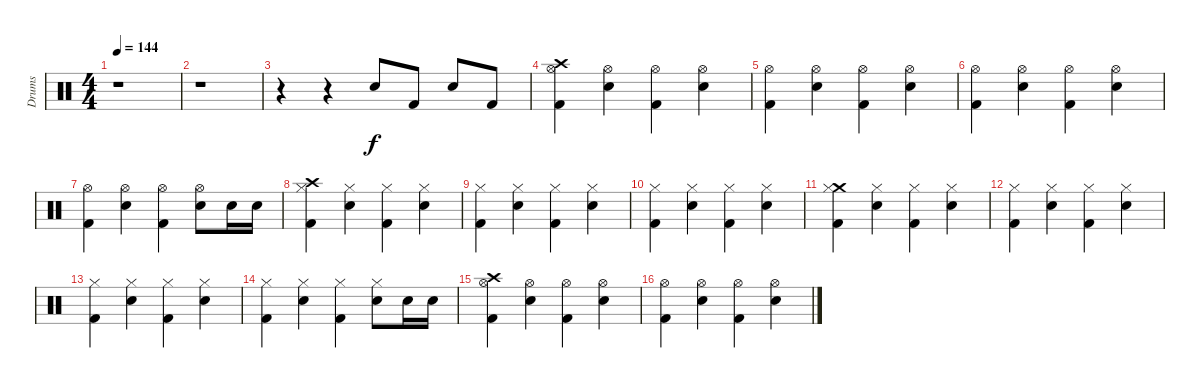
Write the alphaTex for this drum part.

\track ("Drums" "Drums") {instrument percussion}
\staff {score}
\articulation defaults
\ts (4 4)
\tempo 144
\clef neutral
\ks c
r.1{dy f} |
r.1 |
r.4 r.4 "Electric Snare (hit)".8 "Kick (hit) 2".8 "Electric Snare (hit)".8 "Kick (hit) 2".8 |
("Crash high (hit)" "Hi-Hat (open)" "Kick (hit) 2").4 ("Hi-Hat (open)" "Electric Snare (hit)").4 ("Hi-Hat (open)" "Kick (hit) 2").4 ("Hi-Hat (open)" "Electric Snare (hit)").4 |
("Hi-Hat (open)" "Kick (hit) 2").4 ("Hi-Hat (open)" "Electric Snare (hit)").4 ("Hi-Hat (open)" "Kick (hit) 2").4 ("Hi-Hat (open)" "Electric Snare (hit)").4 |
("Hi-Hat (open)" "Kick (hit) 2").4 ("Hi-Hat (open)" "Electric Snare (hit)").4 ("Hi-Hat (open)" "Kick (hit) 2").4 ("Hi-Hat (open)" "Electric Snare (hit)").4 |
("Hi-Hat (open)" "Kick (hit) 2").4 ("Hi-Hat (open)" "Electric Snare (hit)").4 ("Hi-Hat (open)" "Kick (hit) 2").4 ("Hi-Hat (open)" "Electric Snare (hit)").8 "Electric Snare (hit)".16 "Electric Snare (hit)".16 |
("Crash high (hit)" "Hi-Hat (closed)" "Kick (hit) 2").4 ("Hi-Hat (closed)" "Electric Snare (hit)").4 ("Hi-Hat (closed)" "Kick (hit) 2").4 ("Hi-Hat (closed)" "Electric Snare (hit)").4 |
("Hi-Hat (closed)" "Kick (hit) 2").4 ("Hi-Hat (closed)" "Electric Snare (hit)").4 ("Hi-Hat (closed)" "Kick (hit) 2").4 ("Hi-Hat (closed)" "Electric Snare (hit)").4 |
("Hi-Hat (closed)" "Kick (hit) 2").4 ("Hi-Hat (closed)" "Electric Snare (hit)").4 ("Hi-Hat (closed)" "Kick (hit) 2").4 ("Hi-Hat (closed)" "Electric Snare (hit)").4 |
("Crash medium (hit)" "Hi-Hat (closed)" "Kick (hit) 2").4 ("Hi-Hat (closed)" "Electric Snare (hit)").4 ("Hi-Hat (closed)" "Kick (hit) 2").4 ("Hi-Hat (closed)" "Electric Snare (hit)").4 |
("Hi-Hat (closed)" "Kick (hit) 2").4 ("Hi-Hat (closed)" "Electric Snare (hit)").4 ("Hi-Hat (closed)" "Kick (hit) 2").4 ("Hi-Hat (closed)" "Electric Snare (hit)").4 |
("Hi-Hat (closed)" "Kick (hit) 2").4 ("Hi-Hat (closed)" "Electric Snare (hit)").4 ("Hi-Hat (closed)" "Kick (hit) 2").4 ("Hi-Hat (closed)" "Electric Snare (hit)").4 |
("Hi-Hat (closed)" "Kick (hit) 2").4 ("Hi-Hat (closed)" "Electric Snare (hit)").4 ("Hi-Hat (closed)" "Kick (hit) 2").4 ("Hi-Hat (closed)" "Electric Snare (hit)").8 "Electric Snare (hit)".16 "Electric Snare (hit)".16 |
("Crash high (hit)" "Hi-Hat (open)" "Kick (hit) 2").4 ("Hi-Hat (open)" "Electric Snare (hit)").4 ("Hi-Hat (open)" "Kick (hit) 2").4 ("Hi-Hat (open)" "Electric Snare (hit)").4 |
("Hi-Hat (open)" "Kick (hit) 2").4 ("Hi-Hat (open)" "Electric Snare (hit)").4 ("Hi-Hat (open)" "Kick (hit) 2").4 ("Hi-Hat (open)" "Electric Snare (hit)").4
